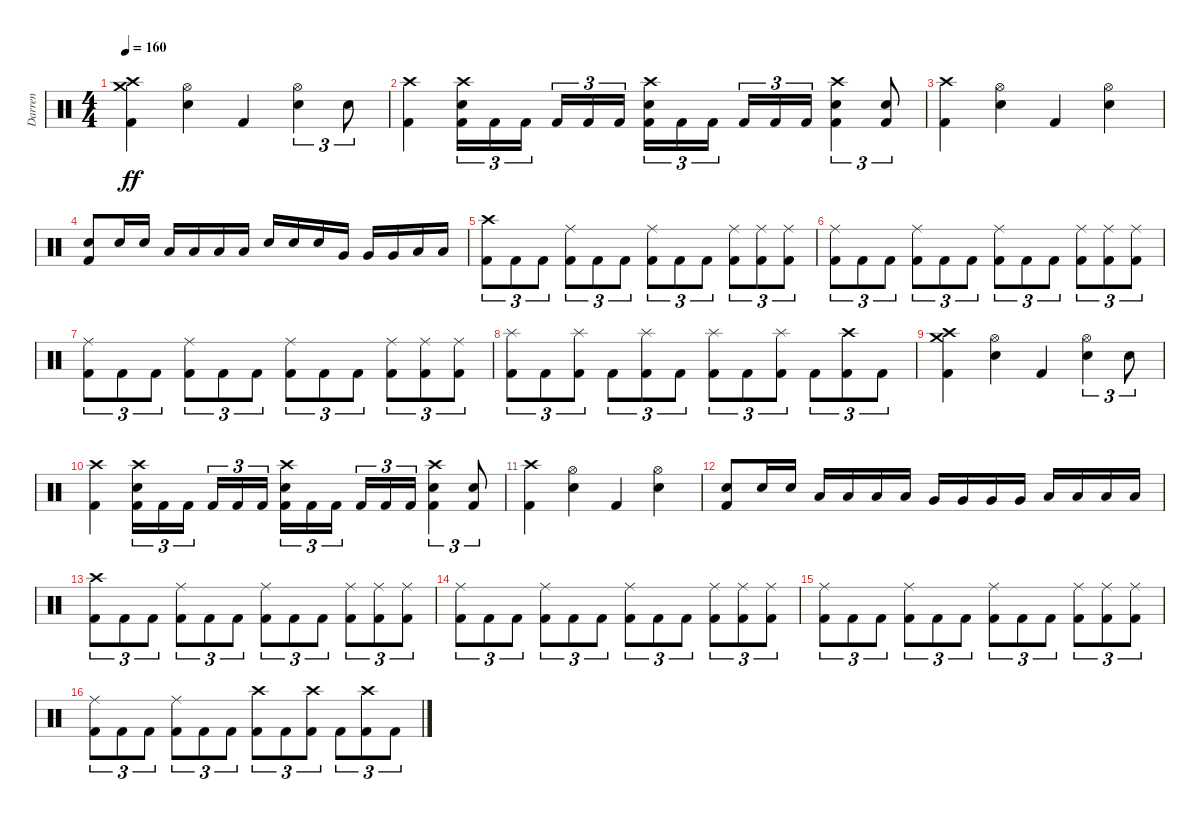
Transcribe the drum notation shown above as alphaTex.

\track ("Darren" "Darren") {instrument percussion}
\staff {score}
\articulation defaults
\ts (4 4)
\tempo 160
\clef neutral
\ks c
("Crash medium (hit)" "Crash high (hit)" "Kick (hit) 2").4{dy ff} ("Hi-Hat (open)" "Electric Snare (hit)").4 "Kick (hit) 2".4 ("Hi-Hat (open)" "Electric Snare (hit)").4{tu (3 2)} "Electric Snare (hit)".8{tu (3 2)} |
("Crash high (hit)" "Kick (hit) 2").4 ("Crash high (hit)" "Electric Snare (hit)" "Kick (hit) 2").16{tu (3 2)} "Kick (hit) 2".16{tu (3 2)} "Kick (hit) 2".16{tu (3 2) beam splitsecondary} "Kick (hit) 2".16{tu (3 2)} "Kick (hit) 2".16{tu (3 2)} "Kick (hit) 2".16{tu (3 2)} ("Crash high (hit)" "Electric Snare (hit)" "Kick (hit) 2").16{tu (3 2)} "Kick (hit) 2".16{tu (3 2)} "Kick (hit) 2".16{tu (3 2) beam splitsecondary} "Kick (hit) 2".16{tu (3 2)} "Kick (hit) 2".16{tu (3 2)} "Kick (hit) 2".16{tu (3 2)} ("Crash high (hit)" "Electric Snare (hit)" "Kick (hit) 2").4{tu (3 2)} ("Electric Snare (hit)" "Kick (hit) 2").8{tu (3 2)} |
("Crash high (hit)" "Kick (hit) 2").4 ("Hi-Hat (open)" "Electric Snare (hit)").4 "Kick (hit) 2".4 ("Hi-Hat (open)" "Electric Snare (hit)").4 |
("Electric Snare (hit)" "Kick (hit) 2").8 "Electric Snare (hit)".16 "Electric Snare (hit)".16 "Low Tom (hit)".16 "Low Tom (hit)".16 "Low Tom (hit)".16 "Low Tom (hit)".16 "Electric Snare (hit)".16 "Electric Snare (hit)".16 "Electric Snare (hit)".16 "Very Low Tom (hit)".16 "Very Low Tom (hit)".16 "Very Low Tom (hit)".16 "Low Floor Tom (hit)".16 "Low Floor Tom (hit)".16 |
("Crash high (hit)" "Kick (hit) 2").8{tu (3 2)} "Kick (hit) 2".8{tu (3 2)} "Kick (hit) 2".8{tu (3 2)} ("Ride (middle)" "Kick (hit) 2").8{tu (3 2)} "Kick (hit) 2".8{tu (3 2)} "Kick (hit) 2".8{tu (3 2)} ("Ride (middle)" "Kick (hit) 2").8{tu (3 2)} "Kick (hit) 2".8{tu (3 2)} "Kick (hit) 2".8{tu (3 2)} ("Ride (middle)" "Kick (hit) 2").8{tu (3 2)} ("Ride (middle)" "Kick (hit) 2").8{tu (3 2)} ("Ride (middle)" "Kick (hit) 2").8{tu (3 2)} |
("Ride (middle)" "Kick (hit) 2").8{tu (3 2)} "Kick (hit) 2".8{tu (3 2)} "Kick (hit) 2".8{tu (3 2)} ("Ride (middle)" "Kick (hit) 2").8{tu (3 2)} "Kick (hit) 2".8{tu (3 2)} "Kick (hit) 2".8{tu (3 2)} ("Ride (middle)" "Kick (hit) 2").8{tu (3 2)} "Kick (hit) 2".8{tu (3 2)} "Kick (hit) 2".8{tu (3 2)} ("Ride (middle)" "Kick (hit) 2").8{tu (3 2)} ("Ride (middle)" "Kick (hit) 2").8{tu (3 2)} ("Ride (middle)" "Kick (hit) 2").8{tu (3 2)} |
("Ride (middle)" "Kick (hit) 2").8{tu (3 2)} "Kick (hit) 2".8{tu (3 2)} "Kick (hit) 2".8{tu (3 2)} ("Ride (middle)" "Kick (hit) 2").8{tu (3 2)} "Kick (hit) 2".8{tu (3 2)} "Kick (hit) 2".8{tu (3 2)} ("Ride (middle)" "Kick (hit) 2").8{tu (3 2)} "Kick (hit) 2".8{tu (3 2)} "Kick (hit) 2".8{tu (3 2)} ("Ride (middle)" "Kick (hit) 2").8{tu (3 2)} ("Ride (middle)" "Kick (hit) 2").8{tu (3 2)} ("Ride (middle)" "Kick (hit) 2").8{tu (3 2)} |
("Splash (hit)" "Kick (hit) 2").8{tu (3 2)} "Kick (hit) 2".8{tu (3 2)} ("Splash (hit)" "Kick (hit) 2").8{tu (3 2)} "Kick (hit) 2".8{tu (3 2)} ("Splash (hit)" "Kick (hit) 2").8{tu (3 2)} "Kick (hit) 2".8{tu (3 2)} ("Splash (hit)" "Kick (hit) 2").8{tu (3 2)} "Kick (hit) 2".8{tu (3 2)} ("Splash (hit)" "Kick (hit) 2").8{tu (3 2)} "Kick (hit) 2".8{tu (3 2)} ("Crash high (hit)" "Kick (hit) 2").8{tu (3 2)} "Kick (hit) 2".8{tu (3 2)} |
("Crash medium (hit)" "Crash high (hit)" "Kick (hit) 2").4 ("Hi-Hat (open)" "Electric Snare (hit)").4 "Kick (hit) 2".4 ("Hi-Hat (open)" "Electric Snare (hit)").4{tu (3 2)} "Electric Snare (hit)".8{tu (3 2)} |
("Crash high (hit)" "Kick (hit) 2").4 ("Crash high (hit)" "Electric Snare (hit)" "Kick (hit) 2").16{tu (3 2)} "Kick (hit) 2".16{tu (3 2)} "Kick (hit) 2".16{tu (3 2) beam splitsecondary} "Kick (hit) 2".16{tu (3 2)} "Kick (hit) 2".16{tu (3 2)} "Kick (hit) 2".16{tu (3 2)} ("Crash high (hit)" "Electric Snare (hit)" "Kick (hit) 2").16{tu (3 2)} "Kick (hit) 2".16{tu (3 2)} "Kick (hit) 2".16{tu (3 2) beam splitsecondary} "Kick (hit) 2".16{tu (3 2)} "Kick (hit) 2".16{tu (3 2)} "Kick (hit) 2".16{tu (3 2)} ("Crash high (hit)" "Electric Snare (hit)" "Kick (hit) 2").4{tu (3 2)} ("Electric Snare (hit)" "Kick (hit) 2").8{tu (3 2)} |
("Crash high (hit)" "Kick (hit) 2").4 ("Hi-Hat (open)" "Electric Snare (hit)").4 "Kick (hit) 2".4 ("Hi-Hat (open)" "Electric Snare (hit)").4 |
("Electric Snare (hit)" "Kick (hit) 2").8 "Electric Snare (hit)".16 "Electric Snare (hit)".16 "Low Tom (hit)".16 "Low Tom (hit)".16 "Low Tom (hit)".16 "Low Tom (hit)".16 "Very Low Tom (hit)".16 "Very Low Tom (hit)".16 "Very Low Tom (hit)".16 "Very Low Tom (hit)".16 "Low Floor Tom (hit)".16 "Low Floor Tom (hit)".16 "Low Floor Tom (hit)".16 "Low Floor Tom (hit)".16 |
("Crash high (hit)" "Kick (hit) 2").8{tu (3 2)} "Kick (hit) 2".8{tu (3 2)} "Kick (hit) 2".8{tu (3 2)} ("Ride (middle)" "Kick (hit) 2").8{tu (3 2)} "Kick (hit) 2".8{tu (3 2)} "Kick (hit) 2".8{tu (3 2)} ("Ride (middle)" "Kick (hit) 2").8{tu (3 2)} "Kick (hit) 2".8{tu (3 2)} "Kick (hit) 2".8{tu (3 2)} ("Ride (middle)" "Kick (hit) 2").8{tu (3 2)} ("Ride (middle)" "Kick (hit) 2").8{tu (3 2)} ("Ride (middle)" "Kick (hit) 2").8{tu (3 2)} |
("Ride (middle)" "Kick (hit) 2").8{tu (3 2)} "Kick (hit) 2".8{tu (3 2)} "Kick (hit) 2".8{tu (3 2)} ("Ride (middle)" "Kick (hit) 2").8{tu (3 2)} "Kick (hit) 2".8{tu (3 2)} "Kick (hit) 2".8{tu (3 2)} ("Ride (middle)" "Kick (hit) 2").8{tu (3 2)} "Kick (hit) 2".8{tu (3 2)} "Kick (hit) 2".8{tu (3 2)} ("Ride (middle)" "Kick (hit) 2").8{tu (3 2)} ("Ride (middle)" "Kick (hit) 2").8{tu (3 2)} ("Ride (middle)" "Kick (hit) 2").8{tu (3 2)} |
("Ride (middle)" "Kick (hit) 2").8{tu (3 2)} "Kick (hit) 2".8{tu (3 2)} "Kick (hit) 2".8{tu (3 2)} ("Ride (middle)" "Kick (hit) 2").8{tu (3 2)} "Kick (hit) 2".8{tu (3 2)} "Kick (hit) 2".8{tu (3 2)} ("Ride (middle)" "Kick (hit) 2").8{tu (3 2)} "Kick (hit) 2".8{tu (3 2)} "Kick (hit) 2".8{tu (3 2)} ("Ride (middle)" "Kick (hit) 2").8{tu (3 2)} ("Ride (middle)" "Kick (hit) 2").8{tu (3 2)} ("Ride (middle)" "Kick (hit) 2").8{tu (3 2)} |
("Ride (middle)" "Kick (hit) 2").8{tu (3 2)} "Kick (hit) 2".8{tu (3 2)} "Kick (hit) 2".8{tu (3 2)} ("Ride (middle)" "Kick (hit) 2").8{tu (3 2)} "Kick (hit) 2".8{tu (3 2)} "Kick (hit) 2".8{tu (3 2)} ("Crash high (hit)" "Kick (hit) 2").8{tu (3 2)} "Kick (hit) 2".8{tu (3 2)} ("Crash high (hit)" "Kick (hit) 2").8{tu (3 2)} "Kick (hit) 2".8{tu (3 2)} ("Crash high (hit)" "Kick (hit) 2").8{tu (3 2)} "Kick (hit) 2".8{tu (3 2)}
